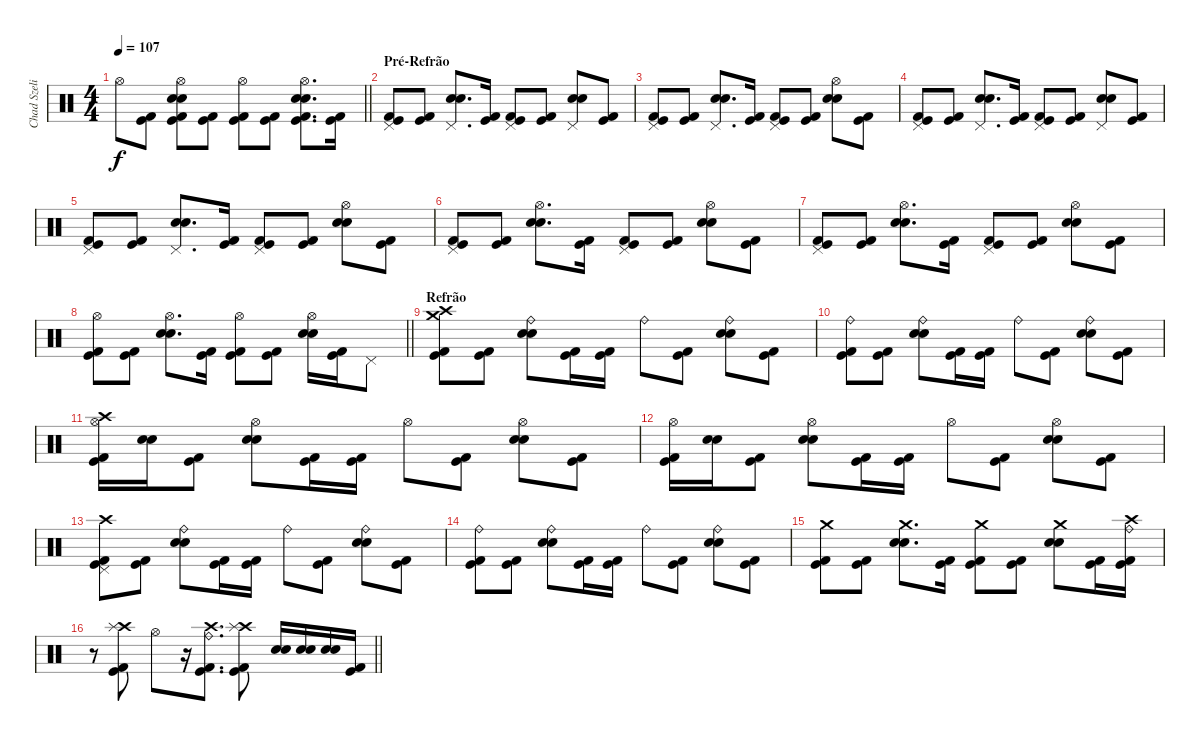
\track ("Chad Szeliga" "Chad Szeli") {instrument percussion}
\staff {score}
\articulation defaults
\ts (4 4)
\tempo 107
\clef neutral
\barLineRight lightlight
\ks c "Hi-Hat (open)".8{dy f}
("Kick (hit) 2" "Kick (hit)").8 ("Kick (hit) 2" "Kick (hit)" "Snare (hit) 2" "Snare (hit) 2" "Hi-Hat (open)").8 ("Kick (hit) 2" "Kick (hit)").8 ("Kick (hit) 2" "Kick (hit)" "Hi-Hat (open)").8 ("Kick (hit) 2" "Kick (hit)").8 ("Kick (hit) 2" "Kick (hit)" "Snare (hit) 2" "Snare (hit) 2" "Hi-Hat (open)").8{d} ("Kick (hit) 2" "Kick (hit)").16 |
\section ("" "Pré-Refrão")
("Kick (hit) 2" "Kick (hit)" "Pedal Hi-Hat (hit)").8 ("Kick (hit) 2" "Kick (hit)").8 ("Snare (hit) 2" "Snare (hit) 2" "Pedal Hi-Hat (hit)").8{d} ("Kick (hit) 2" "Kick (hit)").16 ("Kick (hit) 2" "Kick (hit)" "Pedal Hi-Hat (hit)").8 ("Kick (hit) 2" "Kick (hit)").8 ("Snare (hit) 2" "Snare (hit) 2" "Pedal Hi-Hat (hit)").8 ("Kick (hit) 2" "Kick (hit)").8 |
("Kick (hit) 2" "Kick (hit)" "Pedal Hi-Hat (hit)").8 ("Kick (hit) 2" "Kick (hit)").8 ("Snare (hit) 2" "Snare (hit) 2" "Pedal Hi-Hat (hit)").8{d} ("Kick (hit) 2" "Kick (hit)").16 ("Kick (hit) 2" "Kick (hit)" "Pedal Hi-Hat (hit)").8 ("Kick (hit) 2" "Kick (hit)").8 ("Snare (hit) 2" "Snare (hit) 2" "Hi-Hat (open)").8 ("Kick (hit) 2" "Kick (hit)").8 |
("Kick (hit) 2" "Kick (hit)" "Pedal Hi-Hat (hit)").8 ("Kick (hit) 2" "Kick (hit)").8 ("Snare (hit) 2" "Snare (hit) 2" "Pedal Hi-Hat (hit)").8{d} ("Kick (hit) 2" "Kick (hit)").16 ("Kick (hit) 2" "Kick (hit)" "Pedal Hi-Hat (hit)").8 ("Kick (hit) 2" "Kick (hit)").8 ("Snare (hit) 2" "Snare (hit) 2" "Pedal Hi-Hat (hit)").8 ("Kick (hit) 2" "Kick (hit)").8 |
("Kick (hit) 2" "Kick (hit)" "Pedal Hi-Hat (hit)").8 ("Kick (hit) 2" "Kick (hit)").8 ("Snare (hit) 2" "Snare (hit) 2" "Pedal Hi-Hat (hit)").8{d} ("Kick (hit) 2" "Kick (hit)").16 ("Kick (hit) 2" "Kick (hit)" "Pedal Hi-Hat (hit)").8 ("Kick (hit) 2" "Kick (hit)").8 ("Snare (hit) 2" "Snare (hit) 2" "Hi-Hat (open)").8 ("Kick (hit) 2" "Kick (hit)").8 |
("Kick (hit) 2" "Kick (hit)" "Pedal Hi-Hat (hit)").8 ("Kick (hit) 2" "Kick (hit)").8 ("Snare (hit) 2" "Snare (hit) 2" "Hi-Hat (open)").8{d} ("Kick (hit) 2" "Kick (hit)").16 ("Kick (hit) 2" "Kick (hit)" "Pedal Hi-Hat (hit)").8 ("Kick (hit) 2" "Kick (hit)").8 ("Snare (hit) 2" "Snare (hit) 2" "Hi-Hat (open)").8 ("Kick (hit) 2" "Kick (hit)").8 |
("Kick (hit) 2" "Kick (hit)" "Pedal Hi-Hat (hit)").8 ("Kick (hit) 2" "Kick (hit)").8 ("Snare (hit) 2" "Snare (hit) 2" "Hi-Hat (open)").8{d} ("Kick (hit) 2" "Kick (hit)").16 ("Kick (hit) 2" "Kick (hit)" "Pedal Hi-Hat (hit)").8 ("Kick (hit) 2" "Kick (hit)").8 ("Snare (hit) 2" "Snare (hit) 2" "Hi-Hat (open)").8 ("Kick (hit) 2" "Kick (hit)").8 |
\barLineRight lightlight
("Kick (hit) 2" "Kick (hit)" "Hi-Hat (open)").8 ("Kick (hit) 2" "Kick (hit)").8 ("Snare (hit) 2" "Snare (hit) 2" "Hi-Hat (open)").8{d} ("Kick (hit) 2" "Kick (hit)").16 ("Kick (hit) 2" "Kick (hit)" "Hi-Hat (open)").8 ("Kick (hit) 2" "Kick (hit)").8 ("Snare (hit) 2" "Snare (hit) 2" "Hi-Hat (open)").16 ("Kick (hit) 2" "Kick (hit)").16 "Pedal Hi-Hat (hit)".8 |
\section ("" "Refrão")
("Crash high (hit)" "Kick (hit) 2" "Kick (hit)" "Crash medium (hit)").8 ("Kick (hit) 2" "Kick (hit)").8 ("Snare (hit) 2" "Snare (hit) 2" "Ride (bell)").8 ("Kick (hit) 2" "Kick (hit)").16 ("Kick (hit) 2" "Kick (hit)").16 "Ride (bell)".8 ("Kick (hit) 2" "Kick (hit)").8 ("Snare (hit) 2" "Snare (hit) 2" "Ride (bell)").8 ("Kick (hit) 2" "Kick (hit)").8 |
("Kick (hit) 2" "Kick (hit)" "Ride (bell)").8 ("Kick (hit) 2" "Kick (hit)").8 ("Snare (hit) 2" "Snare (hit) 2" "Ride (bell)").8 ("Kick (hit) 2" "Kick (hit)").16 ("Kick (hit) 2" "Kick (hit)").16 "Ride (bell)".8 ("Kick (hit) 2" "Kick (hit)").8 ("Snare (hit) 2" "Snare (hit) 2" "Ride (bell)").8 ("Kick (hit) 2" "Kick (hit)").8 |
("Crash high (hit)" "Kick (hit) 2" "Kick (hit)" "Hi-Hat (open)").16 ("Snare (hit) 2" "Snare (hit) 2").16 ("Kick (hit) 2" "Kick (hit)").8 ("Snare (hit) 2" "Snare (hit) 2" "Hi-Hat (open)").8 ("Kick (hit) 2" "Kick (hit)").16 ("Kick (hit) 2" "Kick (hit)").16 "Hi-Hat (open)".8 ("Kick (hit) 2" "Kick (hit)").8 ("Snare (hit) 2" "Snare (hit) 2" "Hi-Hat (open)").8 ("Kick (hit) 2" "Kick (hit)").8 |
("Kick (hit) 2" "Kick (hit)" "Hi-Hat (open)").16 ("Snare (hit) 2" "Snare (hit) 2").16 ("Kick (hit) 2" "Kick (hit)").8 ("Snare (hit) 2" "Snare (hit) 2" "Hi-Hat (open)").8 ("Kick (hit) 2" "Kick (hit)").16 ("Kick (hit) 2" "Kick (hit)").16 "Hi-Hat (open)".8 ("Kick (hit) 2" "Kick (hit)").8 ("Snare (hit) 2" "Snare (hit) 2" "Hi-Hat (open)").8 ("Kick (hit) 2" "Kick (hit)").8 |
("Crash high (hit)" "Kick (hit) 2" "Kick (hit)" "Pedal Hi-Hat (hit)").8 ("Kick (hit) 2" "Kick (hit)").8 ("Snare (hit) 2" "Snare (hit) 2" "Ride (bell)").8 ("Kick (hit) 2" "Kick (hit)").16 ("Kick (hit) 2" "Kick (hit)").16 "Ride (bell)".8 ("Kick (hit) 2" "Kick (hit)").8 ("Snare (hit) 2" "Snare (hit) 2" "Ride (bell)").8 ("Kick (hit) 2" "Kick (hit)").8 |
("Kick (hit) 2" "Kick (hit)" "Ride (bell)").8 ("Kick (hit) 2" "Kick (hit)").8 ("Snare (hit) 2" "Snare (hit) 2" "Ride (bell)").8 ("Kick (hit) 2" "Kick (hit)").16 ("Kick (hit) 2" "Kick (hit)").16 "Ride (bell)".8 ("Kick (hit) 2" "Kick (hit)").8 ("Snare (hit) 2" "Snare (hit) 2" "Ride (bell)").8 ("Kick (hit) 2" "Kick (hit)").8 |
("Crash medium (hit)" "Kick (hit) 2" "Kick (hit)").8 ("Kick (hit) 2" "Kick (hit)").8 ("Crash medium (hit)" "Snare (hit) 2" "Snare (hit) 2").8{d} ("Kick (hit) 2" "Kick (hit)").16 ("Crash medium (hit)" "Kick (hit) 2" "Kick (hit)").8 ("Kick (hit) 2" "Kick (hit)").8 ("Crash medium (hit)" "Snare (hit) 2" "Snare (hit) 2").8 ("Kick (hit) 2" "Kick (hit)").16 ("Crash high (hit)" "Kick (hit) 2" "Kick (hit)" "Ride (bell)").16 |
\barLineRight lightlight
r.8 ("Crash high (hit)" "Kick (hit) 2" "Kick (hit)" "Splash (hit)").8 "Hi-Hat (open)".8 r.16 ("Crash high (hit)" "Kick (hit) 2" "Kick (hit)" "Ride (bell)").8{d} ("Crash high (hit)" "Kick (hit) 2" "Kick (hit)" "Splash (hit)").8 ("Snare (hit) 2" "Snare (hit) 2").16 ("Snare (hit) 2" "Snare (hit) 2").16 ("Snare (hit) 2" "Snare (hit) 2").16 ("Kick (hit) 2" "Kick (hit)").16
